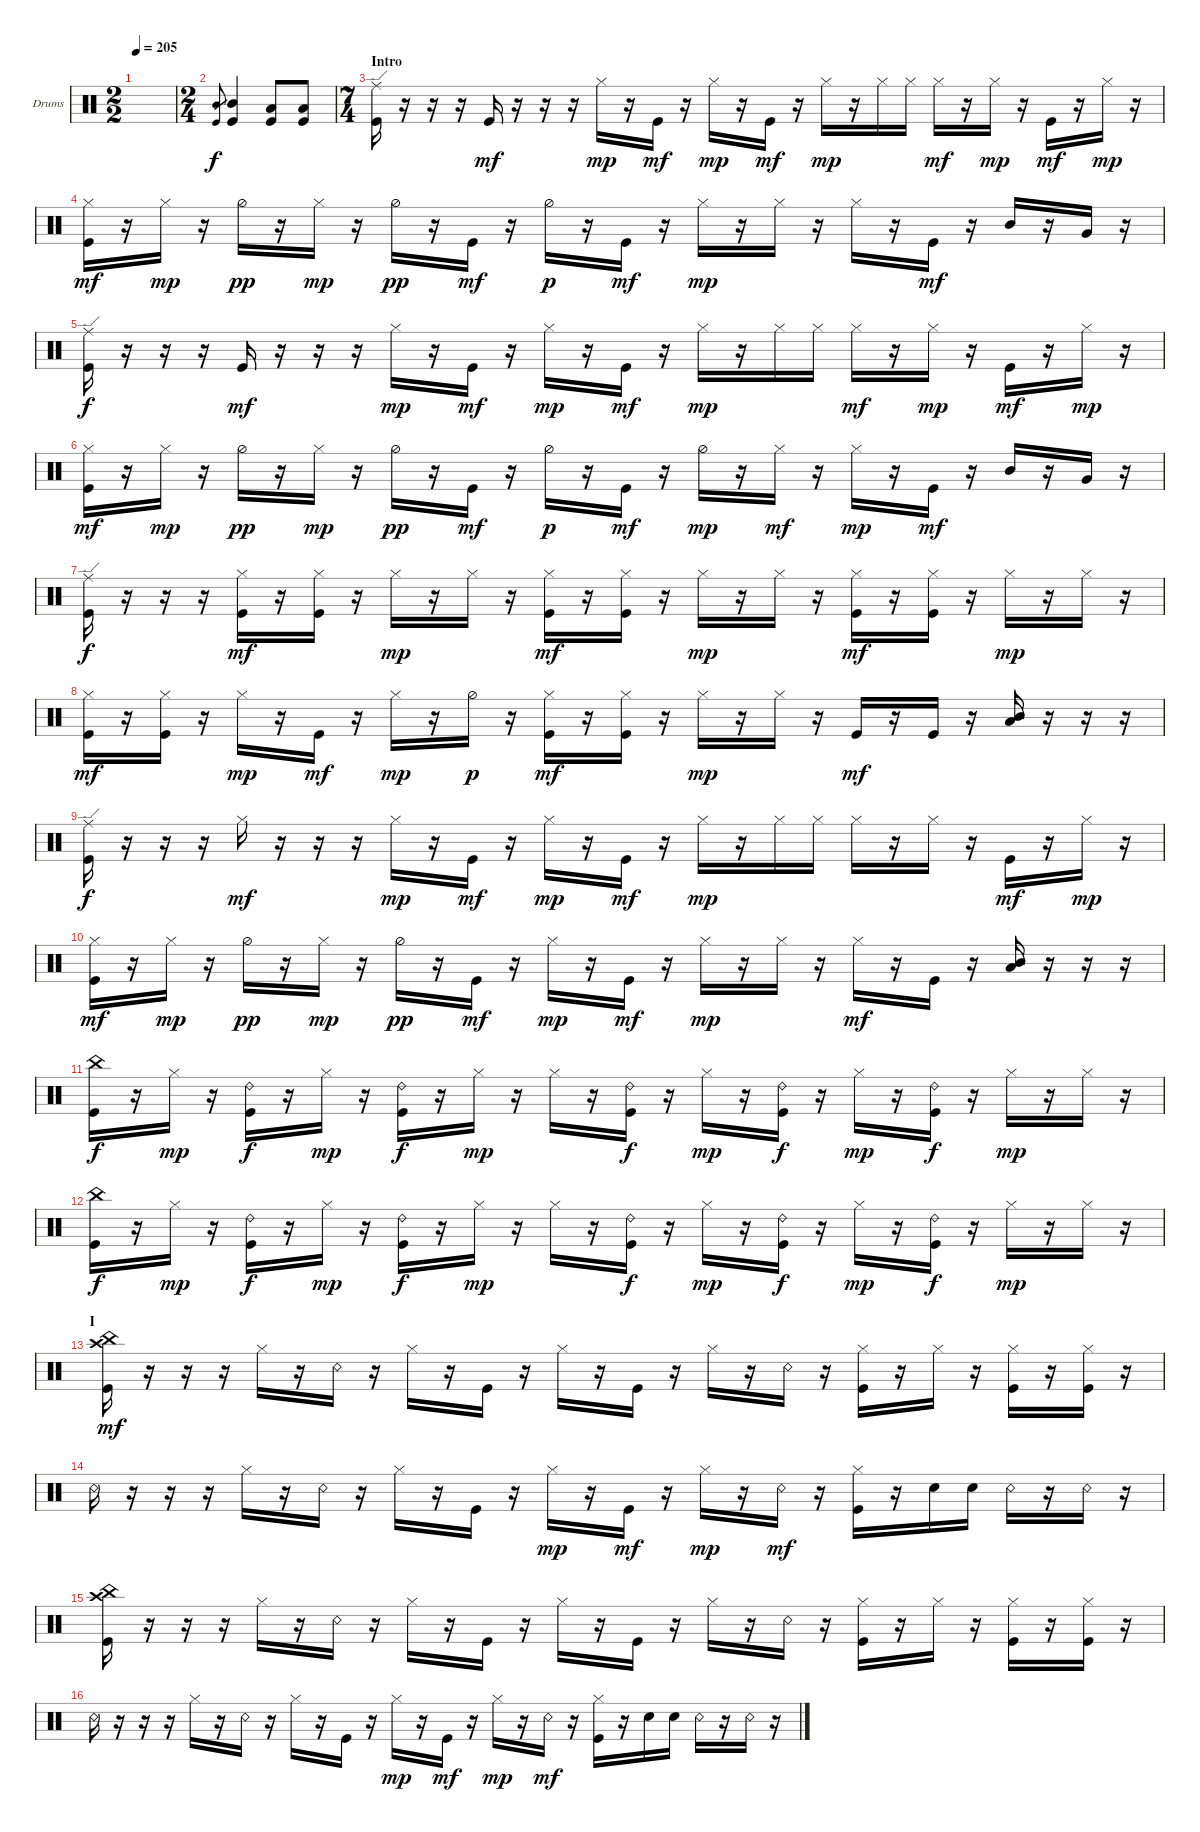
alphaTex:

\defaultSystemsLayout 4
\bracketExtendMode groupsimilarinstruments
\firstSystemTrackNameOrientation horizontal
\otherSystemsTrackNameOrientation horizontal
\track ("Drumkit" "Drums") {instrument percussion}
\staff {score}
\articulation defaults
\ts (2 2)
\tempo 205
\clef neutral
\ks c
|
\ts (2 4)
("Mid Tom (hit)" "Kick (hit)").8{gr} ("Mid Tom (hit)" "Kick (hit)").4 ("Kick (hit)" "Low Tom (hit)").8 ("Kick (hit)" "Low Tom (hit)").8 |
\ts (7 4)
\section ("" "Intro")
("Kick (hit)" "Ride (edge)").16 r.16 r.16 r.16 "Kick (hit)".16{dy mf} r.16 r.16 r.16 "Hi-Hat (closed)".16{dy mp} r.16 "Kick (hit)".16{dy mf} r.16 "Hi-Hat (closed)".16{dy mp} r.16 "Kick (hit)".16{dy mf} r.16 "Hi-Hat (closed)".16{dy mp} r.16 "Hi-Hat (closed)".16 "Hi-Hat (closed)".16 "Hi-Hat (closed)".16{dy mf} r.16 "Hi-Hat (closed)".16{dy mp} r.16 "Kick (hit)".16{dy mf} r.16 "Hi-Hat (closed)".16{dy mp} r.16 |
\scale
0.512309 ("Kick (hit)" "Hi-Hat (closed)").16{dy mf} r.16 "Hi-Hat (closed)".16{dy mp} r.16 "Hi-Hat (half)".16{dy pp} r.16 "Hi-Hat (closed)".16{dy mp} r.16 "Hi-Hat (half)".16{dy pp} r.16 "Kick (hit)".16{dy mf} r.16 "Hi-Hat (half)".16{dy p} r.16 "Kick (hit)".16{dy mf} r.16 "Hi-Hat (closed)".16{dy mp} r.16 "Hi-Hat (closed)".16 r.16 "Hi-Hat (closed)".16 r.16 "Kick (hit)".16{dy mf} r.16 "Mid Tom (hit)".16 r.16 "Very Low Tom (hit)".16 r.16 |
\scale
0.487691 ("Kick (hit)" "Ride (edge)").16{dy f} r.16 r.16 r.16 "Kick (hit)".16{dy mf} r.16 r.16 r.16 "Hi-Hat (closed)".16{dy mp} r.16 "Kick (hit)".16{dy mf} r.16 "Hi-Hat (closed)".16{dy mp} r.16 "Kick (hit)".16{dy mf} r.16 "Hi-Hat (closed)".16{dy mp} r.16 "Hi-Hat (closed)".16 "Hi-Hat (closed)".16 "Hi-Hat (closed)".16{dy mf} r.16 "Hi-Hat (closed)".16{dy mp} r.16 "Kick (hit)".16{dy mf} r.16 "Hi-Hat (closed)".16{dy mp} r.16 |
("Kick (hit)" "Hi-Hat (closed)").16{dy mf} r.16 "Hi-Hat (closed)".16{dy mp} r.16 "Hi-Hat (half)".16{dy pp} r.16 "Hi-Hat (closed)".16{dy mp} r.16 "Hi-Hat (half)".16{dy pp} r.16 "Kick (hit)".16{dy mf} r.16 "Hi-Hat (half)".16{dy p} r.16 "Kick (hit)".16{dy mf} r.16 "Hi-Hat (half)".16{dy mp} r.16 "Hi-Hat (closed)".16{dy mf} r.16 "Hi-Hat (closed)".16{dy mp} r.16 "Kick (hit)".16{dy mf} r.16 "Mid Tom (hit)".16 r.16 "Very Low Tom (hit)".16 r.16 |
("Kick (hit)" "Ride (edge)").16{dy f} r.16 r.16 r.16 ("Kick (hit)" "Hi-Hat (closed)").16{dy mf} r.16 ("Kick (hit)" "Hi-Hat (closed)").16 r.16 "Hi-Hat (closed)".16{dy mp} r.16 "Hi-Hat (closed)".16 r.16 ("Kick (hit)" "Hi-Hat (closed)").16{dy mf} r.16 ("Kick (hit)" "Hi-Hat (closed)").16 r.16 "Hi-Hat (closed)".16{dy mp} r.16 "Hi-Hat (closed)".16 r.16 ("Kick (hit)" "Hi-Hat (closed)").16{dy mf} r.16 ("Kick (hit)" "Hi-Hat (closed)").16 r.16 "Hi-Hat (closed)".16{dy mp} r.16 "Hi-Hat (closed)".16 r.16 |
\scale
0.54185 ("Kick (hit)" "Hi-Hat (closed)").16{dy mf} r.16 ("Kick (hit)" "Hi-Hat (closed)").16 r.16 "Hi-Hat (closed)".16{dy mp} r.16 "Kick (hit)".16{dy mf} r.16 "Hi-Hat (closed)".16{dy mp} r.16 "Hi-Hat (half)".16{dy p} r.16 ("Kick (hit)" "Hi-Hat (closed)").16{dy mf} r.16 ("Kick (hit)" "Hi-Hat (closed)").16 r.16 "Hi-Hat (closed)".16{dy mp} r.16 "Hi-Hat (closed)".16 r.16 "Kick (hit)".16{dy mf} r.16 "Kick (hit)".16 r.16 ("Mid Tom (hit)" "Low Tom (hit)").16 r.16 r.16 r.16 |
\scale
0.45815 ("Kick (hit)" "Ride (edge)").16{dy f} r.16 r.16 r.16 "Hi-Hat (closed)".16{dy mf} r.16 r.16 r.16 "Hi-Hat (closed)".16{dy mp} r.16 "Kick (hit)".16{dy mf} r.16 "Hi-Hat (closed)".16{dy mp} r.16 "Kick (hit)".16{dy mf} r.16 "Hi-Hat (closed)".16{dy mp} r.16 "Hi-Hat (closed)".16 "Hi-Hat (closed)".16 "Hi-Hat (closed)".16 r.16 "Hi-Hat (closed)".16 r.16 "Kick (hit)".16{dy mf} r.16 "Hi-Hat (closed)".16{dy mp} r.16 |
\scale
0.49073 ("Kick (hit)" "Hi-Hat (closed)").16{dy mf} r.16 "Hi-Hat (closed)".16{dy mp} r.16 "Hi-Hat (half)".16{dy pp} r.16 "Hi-Hat (closed)".16{dy mp} r.16 "Hi-Hat (half)".16{dy pp} r.16 "Kick (hit)".16{dy mf} r.16 "Hi-Hat (closed)".16{dy mp} r.16 "Kick (hit)".16{dy mf} r.16 "Hi-Hat (closed)".16{dy mp} r.16 "Hi-Hat (closed)".16 r.16 "Hi-Hat (closed)".16{dy mf} r.16 "Kick (hit)".16 r.16 ("Mid Tom (hit)" "Low Tom (hit)").16 r.16 r.16 r.16 |
\scale
0.510014 ("China (hit)" "Kick (hit)").16{dy f} r.16 "Hi-Hat (closed)".16{dy mp} r.16 ("Kick (hit)" "Ride (bell) 2").16{dy f} r.16 "Hi-Hat (closed)".16{dy mp} r.16 ("Kick (hit)" "Ride (bell) 2").16{dy f} r.16 "Hi-Hat (closed)".16{dy mp} r.16 "Hi-Hat (closed)".16 r.16 ("Kick (hit)" "Ride (bell) 2").16{dy f} r.16 "Hi-Hat (closed)".16{dy mp} r.16 ("Kick (hit)" "Ride (bell) 2").16{dy f} r.16 "Hi-Hat (closed)".16{dy mp} r.16 ("Kick (hit)" "Ride (bell) 2").16{dy f} r.16 "Hi-Hat (closed)".16{dy mp} r.16 "Hi-Hat (closed)".16 r.16 |
("China (hit)" "Kick (hit)").16{dy f} r.16 "Hi-Hat (closed)".16{dy mp} r.16 ("Kick (hit)" "Ride (bell) 2").16{dy f} r.16 "Hi-Hat (closed)".16{dy mp} r.16 ("Kick (hit)" "Ride (bell) 2").16{dy f} r.16 "Hi-Hat (closed)".16{dy mp} r.16 "Hi-Hat (closed)".16 r.16 ("Kick (hit)" "Ride (bell) 2").16{dy f} r.16 "Hi-Hat (closed)".16{dy mp} r.16 ("Kick (hit)" "Ride (bell) 2").16{dy f} r.16 "Hi-Hat (closed)".16{dy mp} r.16 ("Kick (hit)" "Ride (bell) 2").16{dy f} r.16 "Hi-Hat (closed)".16{dy mp} r.16 "Hi-Hat (closed)".16 r.16 |
\section ("" "I")
("Kick (hit)" "China (hit)" "Crash high (hit)").16{dy mf} r.16 r.16 r.16 "Hi-Hat (closed)".16 r.16 "Snare (rim shot)".16 r.16 "Hi-Hat (closed)".16 r.16 "Kick (hit)".16 r.16 "Hi-Hat (closed)".16 r.16 "Kick (hit)".16 r.16 "Hi-Hat (closed)".16 r.16 "Snare (rim shot)".16 r.16 ("Kick (hit)" "Hi-Hat (closed)").16 r.16 "Hi-Hat (closed)".16 r.16 ("Kick (hit)" "Hi-Hat (closed)").16 r.16 ("Kick (hit)" "Hi-Hat (closed)").16 r.16 |
"Snare (rim shot)".16 r.16 r.16 r.16 "Hi-Hat (closed)".16 r.16 "Snare (rim shot)".16 r.16 "Hi-Hat (closed)".16 r.16 "Kick (hit)".16 r.16 "Hi-Hat (closed)".16{dy mp} r.16 "Kick (hit)".16{dy mf} r.16 "Hi-Hat (closed)".16{dy mp} r.16 "Snare (rim shot)".16{dy mf} r.16 ("Kick (hit)" "Hi-Hat (closed)").16 r.16 "Snare (hit) 2".16 "Snare (hit) 2".16 "Snare (rim shot)".16 r.16 "Snare (rim shot)".16 r.16 |
("Kick (hit)" "China (hit)" "Crash high (hit)").16 r.16 r.16 r.16 "Hi-Hat (closed)".16 r.16 "Snare (rim shot)".16 r.16 "Hi-Hat (closed)".16 r.16 "Kick (hit)".16 r.16 "Hi-Hat (closed)".16 r.16 "Kick (hit)".16 r.16 "Hi-Hat (closed)".16 r.16 "Snare (rim shot)".16 r.16 ("Kick (hit)" "Hi-Hat (closed)").16 r.16 "Hi-Hat (closed)".16 r.16 ("Kick (hit)" "Hi-Hat (closed)").16 r.16 ("Kick (hit)" "Hi-Hat (closed)").16 r.16 |
\scale
0.512309 "Snare (rim shot)".16 r.16 r.16 r.16 "Hi-Hat (closed)".16 r.16 "Snare (rim shot)".16 r.16 "Hi-Hat (closed)".16 r.16 "Kick (hit)".16 r.16 "Hi-Hat (closed)".16{dy mp} r.16 "Kick (hit)".16{dy mf} r.16 "Hi-Hat (closed)".16{dy mp} r.16 "Snare (rim shot)".16{dy mf} r.16 ("Kick (hit)" "Hi-Hat (closed)").16 r.16 "Snare (hit) 2".16 "Snare (hit) 2".16 "Snare (rim shot)".16 r.16 "Snare (rim shot)".16 r.16
